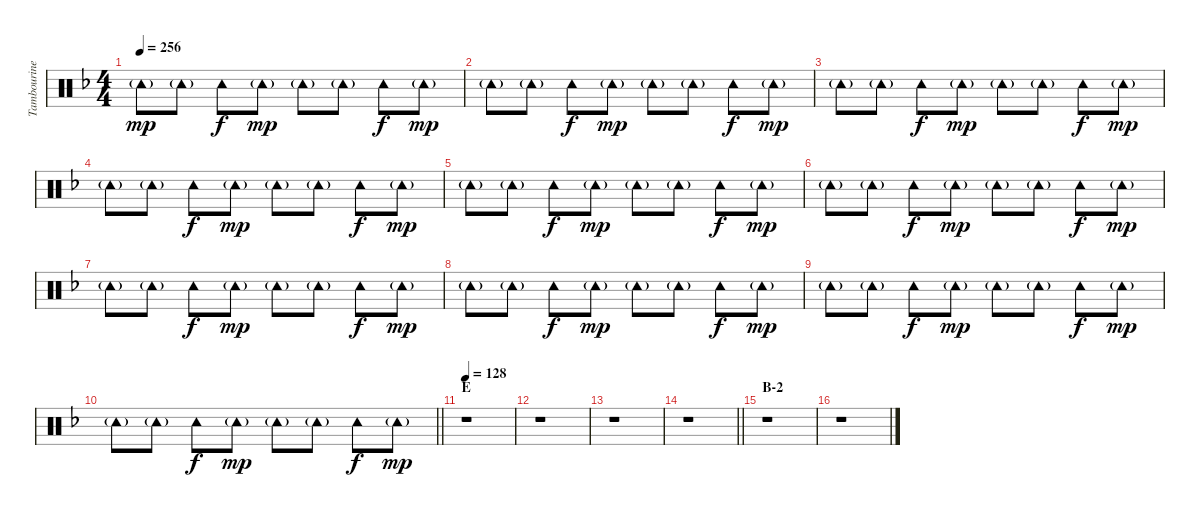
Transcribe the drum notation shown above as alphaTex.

\track ("Tambourine" "Tambourine") {instrument percussion}
\staff {score}
\articulation defaults
\ts (4 4)
\tempo 256
\clef neutral
\ks f "Tambourine (hit)"{g}.8{dy mp} "Tambourine (hit)"{g}.8 "Tambourine (hit)".8{dy f} "Tambourine (hit)"{g}.8{dy mp} "Tambourine (hit)"{g}.8 "Tambourine (hit)"{g}.8 "Tambourine (hit)".8{dy f} "Tambourine (hit)"{g}.8{dy mp}
|
"Tambourine (hit)"{g}.8 "Tambourine (hit)"{g}.8 "Tambourine (hit)".8{dy f} "Tambourine (hit)"{g}.8{dy mp} "Tambourine (hit)"{g}.8 "Tambourine (hit)"{g}.8 "Tambourine (hit)".8{dy f} "Tambourine (hit)"{g}.8{dy mp} |
"Tambourine (hit)"{g}.8 "Tambourine (hit)"{g}.8 "Tambourine (hit)".8{dy f} "Tambourine (hit)"{g}.8{dy mp} "Tambourine (hit)"{g}.8 "Tambourine (hit)"{g}.8 "Tambourine (hit)".8{dy f} "Tambourine (hit)"{g}.8{dy mp} |
"Tambourine (hit)"{g}.8 "Tambourine (hit)"{g}.8 "Tambourine (hit)".8{dy f} "Tambourine (hit)"{g}.8{dy mp} "Tambourine (hit)"{g}.8 "Tambourine (hit)"{g}.8 "Tambourine (hit)".8{dy f} "Tambourine (hit)"{g}.8{dy mp} |
"Tambourine (hit)"{g}.8 "Tambourine (hit)"{g}.8 "Tambourine (hit)".8{dy f} "Tambourine (hit)"{g}.8{dy mp} "Tambourine (hit)"{g}.8 "Tambourine (hit)"{g}.8 "Tambourine (hit)".8{dy f} "Tambourine (hit)"{g}.8{dy mp} |
"Tambourine (hit)"{g}.8 "Tambourine (hit)"{g}.8 "Tambourine (hit)".8{dy f} "Tambourine (hit)"{g}.8{dy mp} "Tambourine (hit)"{g}.8 "Tambourine (hit)"{g}.8 "Tambourine (hit)".8{dy f} "Tambourine (hit)"{g}.8{dy mp} |
"Tambourine (hit)"{g}.8 "Tambourine (hit)"{g}.8 "Tambourine (hit)".8{dy f} "Tambourine (hit)"{g}.8{dy mp} "Tambourine (hit)"{g}.8 "Tambourine (hit)"{g}.8 "Tambourine (hit)".8{dy f} "Tambourine (hit)"{g}.8{dy mp} |
"Tambourine (hit)"{g}.8 "Tambourine (hit)"{g}.8 "Tambourine (hit)".8{dy f} "Tambourine (hit)"{g}.8{dy mp} "Tambourine (hit)"{g}.8 "Tambourine (hit)"{g}.8 "Tambourine (hit)".8{dy f} "Tambourine (hit)"{g}.8{dy mp} |
"Tambourine (hit)"{g}.8 "Tambourine (hit)"{g}.8 "Tambourine (hit)".8{dy f} "Tambourine (hit)"{g}.8{dy mp} "Tambourine (hit)"{g}.8 "Tambourine (hit)"{g}.8 "Tambourine (hit)".8{dy f} "Tambourine (hit)"{g}.8{dy mp} |
\barLineRight lightlight "Tambourine (hit)"{g}.8 "Tambourine (hit)"{g}.8 "Tambourine (hit)".8{dy f} "Tambourine (hit)"{g}.8{dy mp} "Tambourine (hit)"{g}.8 "Tambourine (hit)"{g}.8 "Tambourine (hit)".8{dy f} "Tambourine (hit)"{g}.8{dy mp}
|
\section ("" "E")
\tempo 128
r.1 |
r.1 |
r.1 |
\barLineRight lightlight
r.1 |
\section ("" "B-2")
r.1 |
r.1
